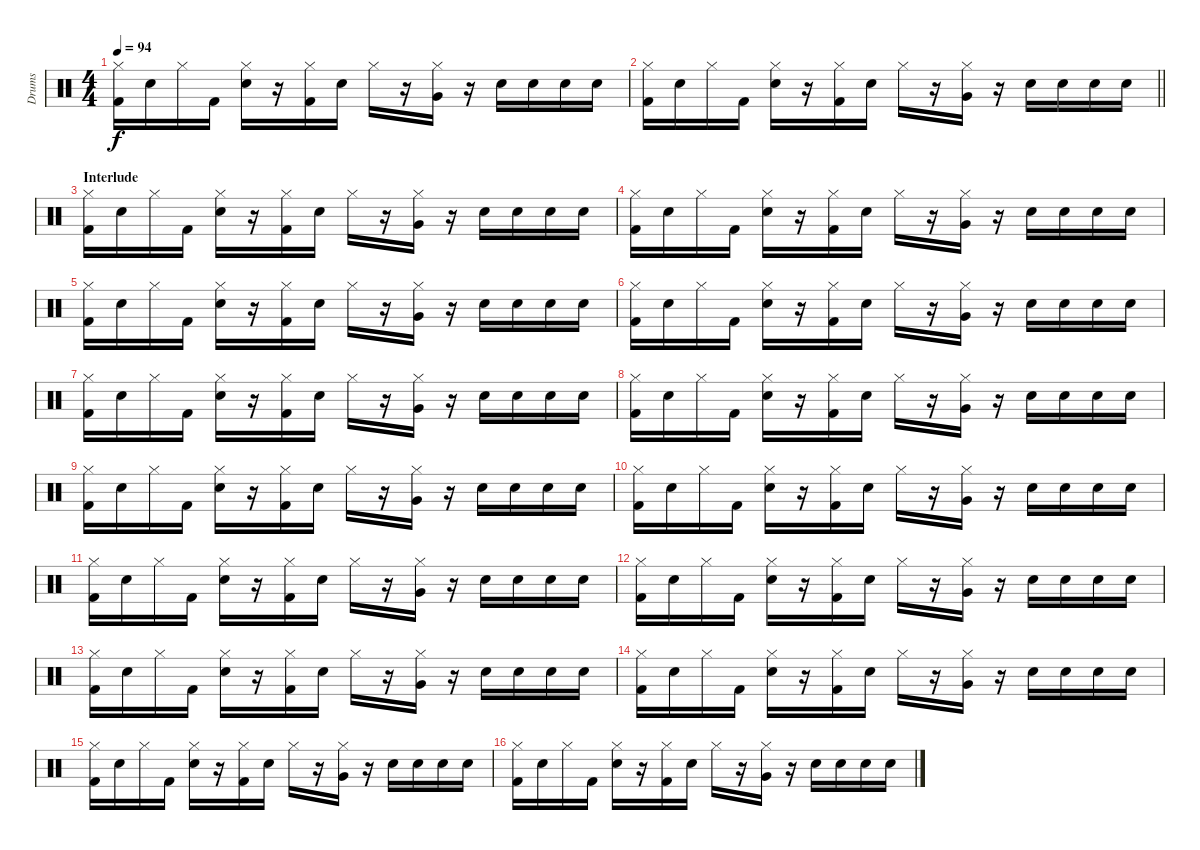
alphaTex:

\track ("Drums" "Drums") {instrument percussion}
\staff {score}
\articulation defaults
\ts (4 4)
\tempo 94
\clef neutral
\ks c
("Hi-Hat (closed)" "Kick (hit) 2").16{dy f} "Snare (hit) 2".16 "Hi-Hat (closed)".16 "Kick (hit) 2".16 ("Hi-Hat (closed)" "Snare (hit) 2").16 r.16 ("Hi-Hat (closed)" "Kick (hit) 2").16 "Snare (hit) 2".16 "Hi-Hat (closed)".16 r.16 ("Hi-Hat (closed)" "Very Low Tom (hit)").16 r.16 "Snare (hit) 2".16 "Snare (hit) 2".16 "Snare (hit) 2".16 "Snare (hit) 2".16 |
\barLineRight lightlight
("Hi-Hat (closed)" "Kick (hit) 2").16 "Snare (hit) 2".16 "Hi-Hat (closed)".16 "Kick (hit) 2".16 ("Hi-Hat (closed)" "Snare (hit) 2").16 r.16 ("Hi-Hat (closed)" "Kick (hit) 2").16 "Snare (hit) 2".16 "Hi-Hat (closed)".16 r.16 ("Hi-Hat (closed)" "Very Low Tom (hit)").16 r.16 "Snare (hit) 2".16 "Snare (hit) 2".16 "Snare (hit) 2".16 "Snare (hit) 2".16 |
\section ("" "Interlude")
("Hi-Hat (closed)" "Kick (hit) 2").16 "Snare (hit) 2".16 "Hi-Hat (closed)".16 "Kick (hit) 2".16 ("Hi-Hat (closed)" "Snare (hit) 2").16 r.16 ("Hi-Hat (closed)" "Kick (hit) 2").16 "Snare (hit) 2".16 "Hi-Hat (closed)".16 r.16 ("Hi-Hat (closed)" "Very Low Tom (hit)").16 r.16 "Snare (hit) 2".16 "Snare (hit) 2".16 "Snare (hit) 2".16 "Snare (hit) 2".16 |
("Hi-Hat (closed)" "Kick (hit) 2").16 "Snare (hit) 2".16 "Hi-Hat (closed)".16 "Kick (hit) 2".16 ("Hi-Hat (closed)" "Snare (hit) 2").16 r.16 ("Hi-Hat (closed)" "Kick (hit) 2").16 "Snare (hit) 2".16 "Hi-Hat (closed)".16 r.16 ("Hi-Hat (closed)" "Very Low Tom (hit)").16 r.16 "Snare (hit) 2".16 "Snare (hit) 2".16 "Snare (hit) 2".16 "Snare (hit) 2".16 |
("Hi-Hat (closed)" "Kick (hit) 2").16 "Snare (hit) 2".16 "Hi-Hat (closed)".16 "Kick (hit) 2".16 ("Hi-Hat (closed)" "Snare (hit) 2").16 r.16 ("Hi-Hat (closed)" "Kick (hit) 2").16 "Snare (hit) 2".16 "Hi-Hat (closed)".16 r.16 ("Hi-Hat (closed)" "Very Low Tom (hit)").16 r.16 "Snare (hit) 2".16 "Snare (hit) 2".16 "Snare (hit) 2".16 "Snare (hit) 2".16 |
("Hi-Hat (closed)" "Kick (hit) 2").16 "Snare (hit) 2".16 "Hi-Hat (closed)".16 "Kick (hit) 2".16 ("Hi-Hat (closed)" "Snare (hit) 2").16 r.16 ("Hi-Hat (closed)" "Kick (hit) 2").16 "Snare (hit) 2".16 "Hi-Hat (closed)".16 r.16 ("Hi-Hat (closed)" "Very Low Tom (hit)").16 r.16 "Snare (hit) 2".16 "Snare (hit) 2".16 "Snare (hit) 2".16 "Snare (hit) 2".16 |
("Hi-Hat (closed)" "Kick (hit) 2").16 "Snare (hit) 2".16 "Hi-Hat (closed)".16 "Kick (hit) 2".16 ("Hi-Hat (closed)" "Snare (hit) 2").16 r.16 ("Hi-Hat (closed)" "Kick (hit) 2").16 "Snare (hit) 2".16 "Hi-Hat (closed)".16 r.16 ("Hi-Hat (closed)" "Very Low Tom (hit)").16 r.16 "Snare (hit) 2".16 "Snare (hit) 2".16 "Snare (hit) 2".16 "Snare (hit) 2".16 |
("Hi-Hat (closed)" "Kick (hit) 2").16 "Snare (hit) 2".16 "Hi-Hat (closed)".16 "Kick (hit) 2".16 ("Hi-Hat (closed)" "Snare (hit) 2").16 r.16 ("Hi-Hat (closed)" "Kick (hit) 2").16 "Snare (hit) 2".16 "Hi-Hat (closed)".16 r.16 ("Hi-Hat (closed)" "Very Low Tom (hit)").16 r.16 "Snare (hit) 2".16 "Snare (hit) 2".16 "Snare (hit) 2".16 "Snare (hit) 2".16 |
("Hi-Hat (closed)" "Kick (hit) 2").16 "Snare (hit) 2".16 "Hi-Hat (closed)".16 "Kick (hit) 2".16 ("Hi-Hat (closed)" "Snare (hit) 2").16 r.16 ("Hi-Hat (closed)" "Kick (hit) 2").16 "Snare (hit) 2".16 "Hi-Hat (closed)".16 r.16 ("Hi-Hat (closed)" "Very Low Tom (hit)").16 r.16 "Snare (hit) 2".16 "Snare (hit) 2".16 "Snare (hit) 2".16 "Snare (hit) 2".16 |
("Hi-Hat (closed)" "Kick (hit) 2").16 "Snare (hit) 2".16 "Hi-Hat (closed)".16 "Kick (hit) 2".16 ("Hi-Hat (closed)" "Snare (hit) 2").16 r.16 ("Hi-Hat (closed)" "Kick (hit) 2").16 "Snare (hit) 2".16 "Hi-Hat (closed)".16 r.16 ("Hi-Hat (closed)" "Very Low Tom (hit)").16 r.16 "Snare (hit) 2".16 "Snare (hit) 2".16 "Snare (hit) 2".16 "Snare (hit) 2".16 |
("Hi-Hat (closed)" "Kick (hit) 2").16 "Snare (hit) 2".16 "Hi-Hat (closed)".16 "Kick (hit) 2".16 ("Hi-Hat (closed)" "Snare (hit) 2").16 r.16 ("Hi-Hat (closed)" "Kick (hit) 2").16 "Snare (hit) 2".16 "Hi-Hat (closed)".16 r.16 ("Hi-Hat (closed)" "Very Low Tom (hit)").16 r.16 "Snare (hit) 2".16 "Snare (hit) 2".16 "Snare (hit) 2".16 "Snare (hit) 2".16 |
("Hi-Hat (closed)" "Kick (hit) 2").16 "Snare (hit) 2".16 "Hi-Hat (closed)".16 "Kick (hit) 2".16 ("Hi-Hat (closed)" "Snare (hit) 2").16 r.16 ("Hi-Hat (closed)" "Kick (hit) 2").16 "Snare (hit) 2".16 "Hi-Hat (closed)".16 r.16 ("Hi-Hat (closed)" "Very Low Tom (hit)").16 r.16 "Snare (hit) 2".16 "Snare (hit) 2".16 "Snare (hit) 2".16 "Snare (hit) 2".16 |
("Hi-Hat (closed)" "Kick (hit) 2").16 "Snare (hit) 2".16 "Hi-Hat (closed)".16 "Kick (hit) 2".16 ("Hi-Hat (closed)" "Snare (hit) 2").16 r.16 ("Hi-Hat (closed)" "Kick (hit) 2").16 "Snare (hit) 2".16 "Hi-Hat (closed)".16 r.16 ("Hi-Hat (closed)" "Very Low Tom (hit)").16 r.16 "Snare (hit) 2".16 "Snare (hit) 2".16 "Snare (hit) 2".16 "Snare (hit) 2".16 |
("Hi-Hat (closed)" "Kick (hit) 2").16 "Snare (hit) 2".16 "Hi-Hat (closed)".16 "Kick (hit) 2".16 ("Hi-Hat (closed)" "Snare (hit) 2").16 r.16 ("Hi-Hat (closed)" "Kick (hit) 2").16 "Snare (hit) 2".16 "Hi-Hat (closed)".16 r.16 ("Hi-Hat (closed)" "Very Low Tom (hit)").16 r.16 "Snare (hit) 2".16 "Snare (hit) 2".16 "Snare (hit) 2".16 "Snare (hit) 2".16 |
("Hi-Hat (closed)" "Kick (hit) 2").16 "Snare (hit) 2".16 "Hi-Hat (closed)".16 "Kick (hit) 2".16 ("Hi-Hat (closed)" "Snare (hit) 2").16 r.16 ("Hi-Hat (closed)" "Kick (hit) 2").16 "Snare (hit) 2".16 "Hi-Hat (closed)".16 r.16 ("Hi-Hat (closed)" "Very Low Tom (hit)").16 r.16 "Snare (hit) 2".16 "Snare (hit) 2".16 "Snare (hit) 2".16 "Snare (hit) 2".16 |
("Hi-Hat (closed)" "Kick (hit) 2").16 "Snare (hit) 2".16 "Hi-Hat (closed)".16 "Kick (hit) 2".16 ("Hi-Hat (closed)" "Snare (hit) 2").16 r.16 ("Hi-Hat (closed)" "Kick (hit) 2").16 "Snare (hit) 2".16 "Hi-Hat (closed)".16 r.16 ("Hi-Hat (closed)" "Very Low Tom (hit)").16 r.16 "Snare (hit) 2".16 "Snare (hit) 2".16 "Snare (hit) 2".16 "Snare (hit) 2".16
